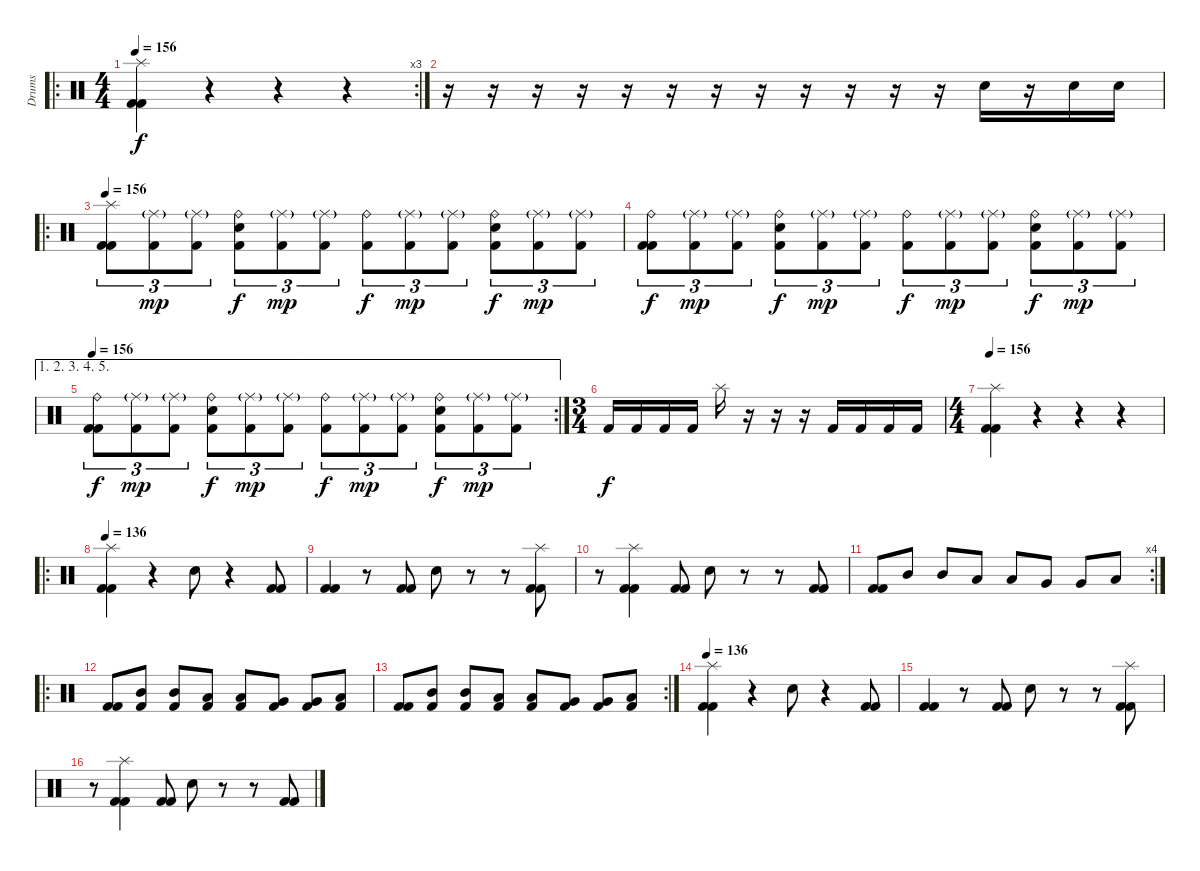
\track ("Drums" "Drums") {instrument percussion}
\staff {score}
\articulation defaults
\ro
\rc 3
\ts (4 4)
\tempo 156
\clef neutral
\ks c
("Splash (hit)" "Kick (hit) 2" "Kick (hit) 2").4{dy f} r.4 r.4 r.4 |
r.16 r.16 r.16 r.16 r.16 r.16 r.16 r.16 r.16 r.16 r.16 r.16 "Electric Snare (hit)".16 r.16 "Electric Snare (hit)".16 "Electric Snare (hit)".16 |
\ro
\tempo 156
("Splash (hit)" "Kick (hit) 2" "Kick (hit) 2").8{tu (3 2)} ("Ride (middle)"{g} "Kick (hit) 2").8{tu (3 2) dy mp} ("Ride (middle)"{g} "Kick (hit) 2").8{tu (3 2)} ("Ride (bell)" "Kick (hit) 2" "Electric Snare (hit)").8{tu (3 2) dy f} ("Ride (middle)"{g} "Kick (hit) 2").8{tu (3 2) dy mp} ("Ride (middle)"{g} "Kick (hit) 2").8{tu (3 2)} ("Ride (bell)" "Kick (hit) 2").8{tu (3 2) dy f} ("Ride (middle)"{g} "Kick (hit) 2").8{tu (3 2) dy mp} ("Ride (middle)"{g} "Kick (hit) 2").8{tu (3 2)} ("Ride (bell)" "Kick (hit) 2" "Electric Snare (hit)").8{tu (3 2) dy f} ("Ride (middle)"{g} "Kick (hit) 2").8{tu (3 2) dy mp} ("Ride (middle)"{g} "Kick (hit) 2").8{tu (3 2)} |
("Ride (bell)" "Kick (hit) 2" "Kick (hit) 2").8{tu (3 2) dy f} ("Ride (middle)"{g} "Kick (hit) 2").8{tu (3 2) dy mp} ("Ride (middle)"{g} "Kick (hit) 2").8{tu (3 2)} ("Ride (bell)" "Kick (hit) 2" "Electric Snare (hit)").8{tu (3 2) dy f} ("Ride (middle)"{g} "Kick (hit) 2").8{tu (3 2) dy mp} ("Ride (middle)"{g} "Kick (hit) 2").8{tu (3 2)} ("Ride (bell)" "Kick (hit) 2").8{tu (3 2) dy f} ("Ride (middle)"{g} "Kick (hit) 2").8{tu (3 2) dy mp} ("Ride (middle)"{g} "Kick (hit) 2").8{tu (3 2)} ("Ride (bell)" "Kick (hit) 2" "Electric Snare (hit)").8{tu (3 2) dy f} ("Ride (middle)"{g} "Kick (hit) 2").8{tu (3 2) dy mp} ("Ride (middle)"{g} "Kick (hit) 2").8{tu (3 2)} |
\ae (1 2 3 4 5)
\rc 2
\tempo 156
("Ride (bell)" "Kick (hit) 2" "Kick (hit) 2").8{tu (3 2) dy f} ("Ride (middle)"{g} "Kick (hit) 2").8{tu (3 2) dy mp} ("Ride (middle)"{g} "Kick (hit) 2").8{tu (3 2)} ("Ride (bell)" "Kick (hit) 2" "Electric Snare (hit)").8{tu (3 2) dy f} ("Ride (middle)"{g} "Kick (hit) 2").8{tu (3 2) dy mp} ("Ride (middle)"{g} "Kick (hit) 2").8{tu (3 2)} ("Ride (bell)" "Kick (hit) 2").8{tu (3 2) dy f} ("Ride (middle)"{g} "Kick (hit) 2").8{tu (3 2) dy mp} ("Ride (middle)"{g} "Kick (hit) 2").8{tu (3 2)} ("Ride (bell)" "Kick (hit) 2" "Electric Snare (hit)").8{tu (3 2) dy f} ("Ride (middle)"{g} "Kick (hit) 2").8{tu (3 2) dy mp} ("Ride (middle)"{g} "Kick (hit) 2").8{tu (3 2)} |
\ts (3 4)
"Kick (hit) 2".16{dy f} "Kick (hit) 2".16 "Kick (hit) 2".16 "Kick (hit) 2".16 "Splash (hit)".16 r.16 r.16 r.16 "Kick (hit) 2".16 "Kick (hit) 2".16 "Kick (hit) 2".16 "Kick (hit) 2".16 |
\ts (4 4)
\tempo 156
("Kick (hit) 2" "Splash (hit)" "Kick (hit) 2").4 r.4 r.4 r.4 |
\ro
\tempo 136
("Splash (hit)" "Kick (hit) 2" "Kick (hit) 2").4 r.4 "Electric Snare (hit)".8 r.4 ("Kick (hit) 2" "Kick (hit) 2").8 |
("Kick (hit) 2" "Kick (hit) 2").4 r.8 ("Kick (hit) 2" "Kick (hit) 2").8 "Electric Snare (hit)".8 r.8 r.8 ("Splash (hit)" "Kick (hit) 2" "Kick (hit) 2").8 |
r.8 ("Splash (hit)" "Kick (hit) 2" "Kick (hit) 2").4 ("Kick (hit) 2" "Kick (hit) 2").8 "Electric Snare (hit)".8 r.8 r.8 ("Kick (hit) 2" "Kick (hit) 2").8 |
\rc 4
("Kick (hit) 2" "Kick (hit) 2").8 "Mid Tom (hit)".8 "Mid Tom (hit)".8 "Low Tom (hit)".8 "Low Tom (hit)".8 "Very Low Tom (hit)".8 "Very Low Tom (hit)".8 "Low Floor Tom (hit)".8 |
\ro
("Kick (hit) 2" "Kick (hit) 2").8 ("Mid Tom (hit)" "Kick (hit) 2").8 ("Mid Tom (hit)" "Kick (hit) 2").8 ("Low Tom (hit)" "Kick (hit) 2").8 ("Low Tom (hit)" "Kick (hit) 2").8 ("Very Low Tom (hit)" "Kick (hit) 2").8 ("Very Low Tom (hit)" "Kick (hit) 2").8 ("Low Floor Tom (hit)" "Kick (hit) 2").8 |
\rc 2
("Kick (hit) 2" "Kick (hit) 2").8 ("Mid Tom (hit)" "Kick (hit) 2").8 ("Mid Tom (hit)" "Kick (hit) 2").8 ("Low Tom (hit)" "Kick (hit) 2").8 ("Low Tom (hit)" "Kick (hit) 2").8 ("Very Low Tom (hit)" "Kick (hit) 2").8 ("Very Low Tom (hit)" "Kick (hit) 2").8 ("Low Floor Tom (hit)" "Kick (hit) 2").8 |
\tempo 136
("Splash (hit)" "Kick (hit) 2" "Kick (hit) 2").4 r.4 "Electric Snare (hit)".8 r.4 ("Kick (hit) 2" "Kick (hit) 2").8 |
("Kick (hit) 2" "Kick (hit) 2").4 r.8 ("Kick (hit) 2" "Kick (hit) 2").8 "Electric Snare (hit)".8 r.8 r.8 ("Splash (hit)" "Kick (hit) 2" "Kick (hit) 2").8 |
r.8 ("Splash (hit)" "Kick (hit) 2" "Kick (hit) 2").4 ("Kick (hit) 2" "Kick (hit) 2").8 "Electric Snare (hit)".8 r.8 r.8 ("Kick (hit) 2" "Kick (hit) 2").8
